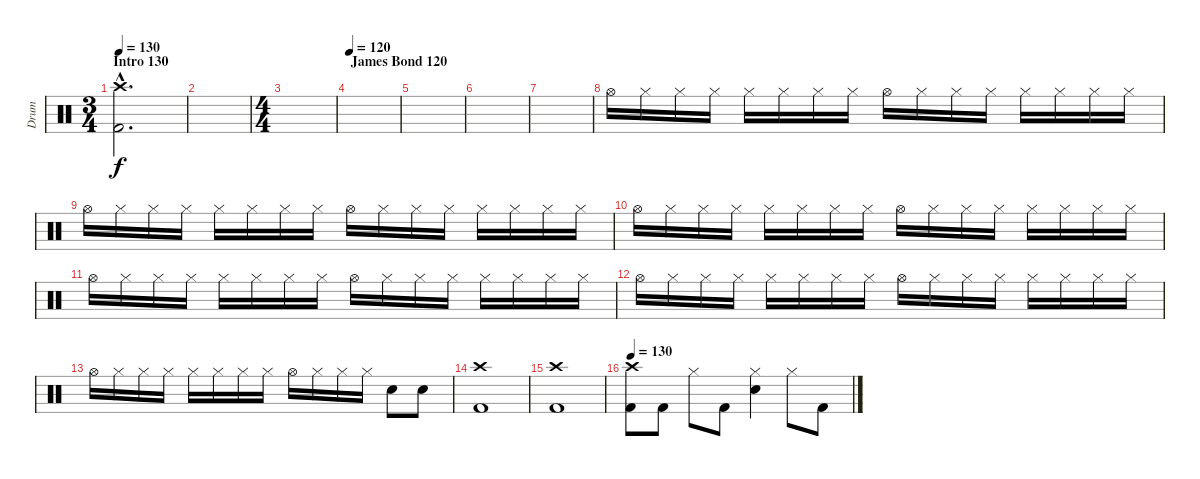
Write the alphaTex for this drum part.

\track ("Drum" "Drum") {instrument percussion}
\staff {score}
\articulation defaults
\ts (3 4)
\section ("" "Intro 130")
\tempo 130
\clef neutral
\ks c
("Crash high (hit)"{hac} "Kick (hit) 2"{hac}).2{d dy f} |
|
\ts (4 4)
|
\section ("" "James Bond 120")
\tempo 120
|
|
|
|
"Hi-Hat (open)".16 "Hi-Hat (closed)".16 "Hi-Hat (closed)".16 "Hi-Hat (closed)".16 "Hi-Hat (closed)".16 "Hi-Hat (closed)".16 "Hi-Hat (closed)".16 "Hi-Hat (closed)".16 "Hi-Hat (open)".16 "Hi-Hat (closed)".16 "Hi-Hat (closed)".16 "Hi-Hat (closed)".16 "Hi-Hat (closed)".16 "Hi-Hat (closed)".16 "Hi-Hat (closed)".16 "Hi-Hat (closed)".16 |
"Hi-Hat (open)".16 "Hi-Hat (closed)".16 "Hi-Hat (closed)".16 "Hi-Hat (closed)".16 "Hi-Hat (closed)".16 "Hi-Hat (closed)".16 "Hi-Hat (closed)".16 "Hi-Hat (closed)".16 "Hi-Hat (open)".16 "Hi-Hat (closed)".16 "Hi-Hat (closed)".16 "Hi-Hat (closed)".16 "Hi-Hat (closed)".16 "Hi-Hat (closed)".16 "Hi-Hat (closed)".16 "Hi-Hat (closed)".16 |
"Hi-Hat (open)".16 "Hi-Hat (closed)".16 "Hi-Hat (closed)".16 "Hi-Hat (closed)".16 "Hi-Hat (closed)".16 "Hi-Hat (closed)".16 "Hi-Hat (closed)".16 "Hi-Hat (closed)".16 "Hi-Hat (open)".16 "Hi-Hat (closed)".16 "Hi-Hat (closed)".16 "Hi-Hat (closed)".16 "Hi-Hat (closed)".16 "Hi-Hat (closed)".16 "Hi-Hat (closed)".16 "Hi-Hat (closed)".16 |
"Hi-Hat (open)".16 "Hi-Hat (closed)".16 "Hi-Hat (closed)".16 "Hi-Hat (closed)".16 "Hi-Hat (closed)".16 "Hi-Hat (closed)".16 "Hi-Hat (closed)".16 "Hi-Hat (closed)".16 "Hi-Hat (open)".16 "Hi-Hat (closed)".16 "Hi-Hat (closed)".16 "Hi-Hat (closed)".16 "Hi-Hat (closed)".16 "Hi-Hat (closed)".16 "Hi-Hat (closed)".16 "Hi-Hat (closed)".16 |
"Hi-Hat (open)".16 "Hi-Hat (closed)".16 "Hi-Hat (closed)".16 "Hi-Hat (closed)".16 "Hi-Hat (closed)".16 "Hi-Hat (closed)".16 "Hi-Hat (closed)".16 "Hi-Hat (closed)".16 "Hi-Hat (open)".16 "Hi-Hat (closed)".16 "Hi-Hat (closed)".16 "Hi-Hat (closed)".16 "Hi-Hat (closed)".16 "Hi-Hat (closed)".16 "Hi-Hat (closed)".16 "Hi-Hat (closed)".16 |
"Hi-Hat (open)".16 "Hi-Hat (closed)".16 "Hi-Hat (closed)".16 "Hi-Hat (closed)".16 "Hi-Hat (closed)".16 "Hi-Hat (closed)".16 "Hi-Hat (closed)".16 "Hi-Hat (closed)".16 "Hi-Hat (open)".16 "Hi-Hat (closed)".16 "Hi-Hat (closed)".16 "Hi-Hat (closed)".16 "Electric Snare (hit)".8 "Electric Snare (hit)".8 |
("Crash high (hit)" "Kick (hit) 2").1 |
("Crash high (hit)" "Kick (hit) 2").1 |
\tempo 130
("Crash high (hit)" "Kick (hit) 2").8 "Kick (hit) 2".8 "Hi-Hat (closed)".8 "Kick (hit) 2".8 ("Hi-Hat (closed)" "Electric Snare (hit)").4 "Hi-Hat (closed)".8 "Kick (hit) 2".8
